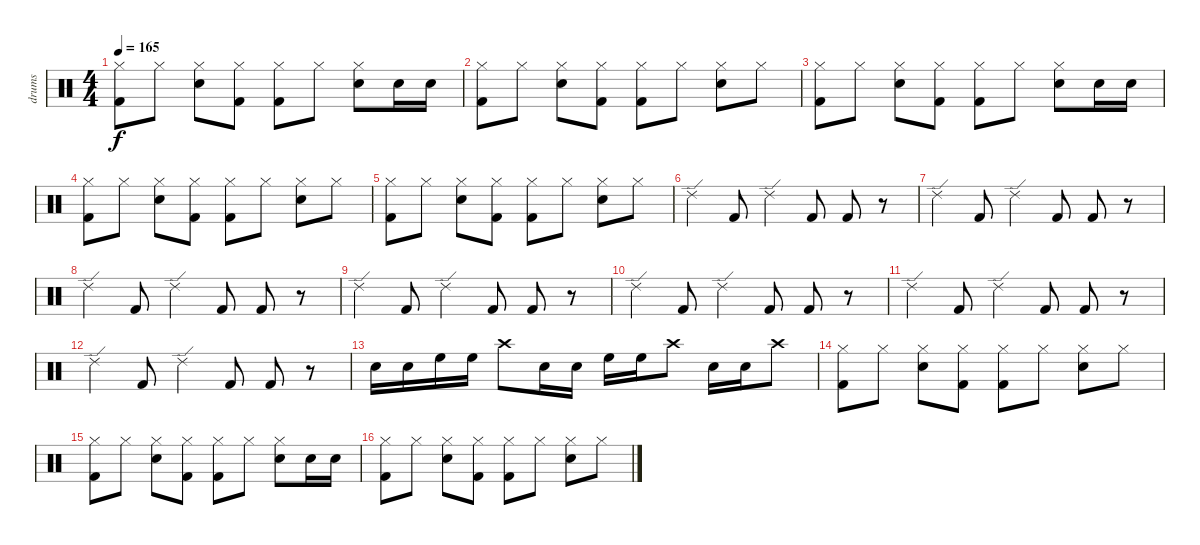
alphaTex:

\track ("drums" "drums") {instrument percussion}
\staff {score}
\articulation defaults
\ts (4 4)
\tempo 165
\clef neutral
\ks c
("Hi-Hat (closed)" "Kick (hit) 2").8{dy f} "Hi-Hat (closed)".8 ("Snare (hit) 2" "Hi-Hat (closed)").8 ("Hi-Hat (closed)" "Kick (hit) 2").8 ("Hi-Hat (closed)" "Kick (hit) 2").8 "Hi-Hat (closed)".8 ("Snare (hit) 2" "Hi-Hat (closed)").8 "Snare (hit) 2".16 "Snare (hit) 2".16 |
("Hi-Hat (closed)" "Kick (hit) 2").8 "Hi-Hat (closed)".8 ("Snare (hit) 2" "Hi-Hat (closed)").8 ("Hi-Hat (closed)" "Kick (hit) 2").8 ("Hi-Hat (closed)" "Kick (hit) 2").8 "Hi-Hat (closed)".8 ("Snare (hit) 2" "Hi-Hat (closed)").8 "Hi-Hat (closed)".8 |
("Hi-Hat (closed)" "Kick (hit) 2").8 "Hi-Hat (closed)".8 ("Snare (hit) 2" "Hi-Hat (closed)").8 ("Hi-Hat (closed)" "Kick (hit) 2").8 ("Hi-Hat (closed)" "Kick (hit) 2").8 "Hi-Hat (closed)".8 ("Snare (hit) 2" "Hi-Hat (closed)").8 "Snare (hit) 2".16 "Snare (hit) 2".16 |
("Hi-Hat (closed)" "Kick (hit) 2").8 "Hi-Hat (closed)".8 ("Snare (hit) 2" "Hi-Hat (closed)").8 ("Hi-Hat (closed)" "Kick (hit) 2").8 ("Hi-Hat (closed)" "Kick (hit) 2").8 "Hi-Hat (closed)".8 ("Snare (hit) 2" "Hi-Hat (closed)").8 "Hi-Hat (closed)".8 |
("Hi-Hat (closed)" "Kick (hit) 2").8 "Hi-Hat (closed)".8 ("Snare (hit) 2" "Hi-Hat (closed)").8 ("Hi-Hat (closed)" "Kick (hit) 2").8 ("Hi-Hat (closed)" "Kick (hit) 2").8 "Hi-Hat (closed)".8 ("Snare (hit) 2" "Hi-Hat (closed)").8 "Hi-Hat (closed)".8 |
"Ride (edge) 2".4 "Kick (hit) 2".8 "Ride (edge) 2".4 "Kick (hit) 2".8 "Kick (hit) 2".8 r.8 |
"Ride (edge) 2".4 "Kick (hit) 2".8 "Ride (edge) 2".4 "Kick (hit) 2".8 "Kick (hit) 2".8 r.8 |
"Ride (edge) 2".4 "Kick (hit) 2".8 "Ride (edge) 2".4 "Kick (hit) 2".8 "Kick (hit) 2".8 r.8 |
"Ride (edge) 2".4 "Kick (hit) 2".8 "Ride (edge) 2".4 "Kick (hit) 2".8 "Kick (hit) 2".8 r.8 |
"Ride (edge) 2".4 "Kick (hit) 2".8 "Ride (edge) 2".4 "Kick (hit) 2".8 "Kick (hit) 2".8 r.8 |
"Ride (edge) 2".4 "Kick (hit) 2".8 "Ride (edge) 2".4 "Kick (hit) 2".8 "Kick (hit) 2".8 r.8 |
"Ride (edge) 2".4 "Kick (hit) 2".8 "Ride (edge) 2".4 "Kick (hit) 2".8 "Kick (hit) 2".8 r.8 |
"Snare (hit) 2".16 "Snare (hit) 2".16 "High Floor Tom (hit)".16 "High Floor Tom (hit)".16 "Crash high (hit)".8 "Snare (hit) 2".16 "Snare (hit) 2".16 "High Floor Tom (hit)".16 "High Floor Tom (hit)".16 "Crash high (hit)".8 "Snare (hit) 2".16 "Snare (hit) 2".16 "Crash high (hit)".8 |
("Hi-Hat (closed)" "Kick (hit) 2").8 "Hi-Hat (closed)".8 ("Snare (hit) 2" "Hi-Hat (closed)").8 ("Hi-Hat (closed)" "Kick (hit) 2").8 ("Hi-Hat (closed)" "Kick (hit) 2").8 "Hi-Hat (closed)".8 ("Snare (hit) 2" "Hi-Hat (closed)").8 "Hi-Hat (closed)".8 |
("Hi-Hat (closed)" "Kick (hit) 2").8 "Hi-Hat (closed)".8 ("Snare (hit) 2" "Hi-Hat (closed)").8 ("Hi-Hat (closed)" "Kick (hit) 2").8 ("Hi-Hat (closed)" "Kick (hit) 2").8 "Hi-Hat (closed)".8 ("Snare (hit) 2" "Hi-Hat (closed)").8 "Snare (hit) 2".16 "Snare (hit) 2".16 |
("Hi-Hat (closed)" "Kick (hit) 2").8 "Hi-Hat (closed)".8 ("Snare (hit) 2" "Hi-Hat (closed)").8 ("Hi-Hat (closed)" "Kick (hit) 2").8 ("Hi-Hat (closed)" "Kick (hit) 2").8 "Hi-Hat (closed)".8 ("Snare (hit) 2" "Hi-Hat (closed)").8 "Hi-Hat (closed)".8
